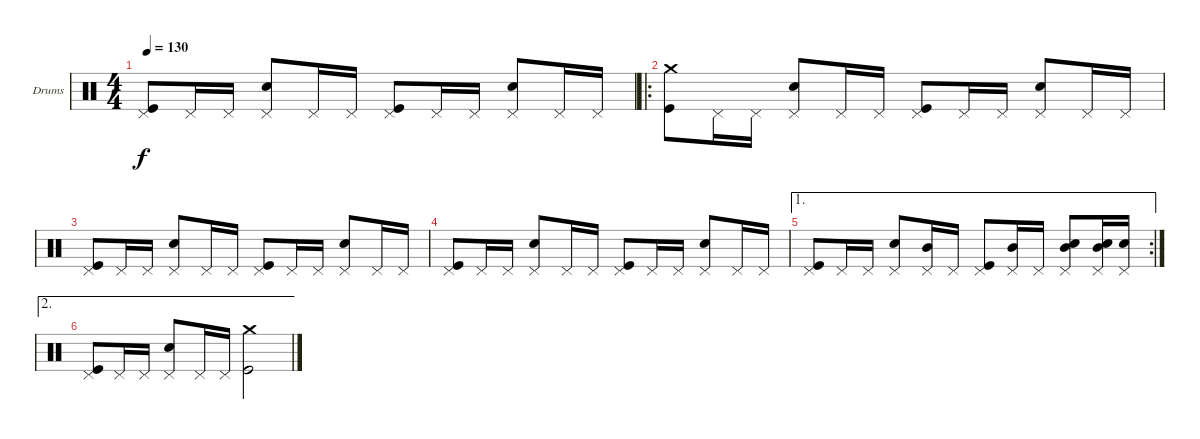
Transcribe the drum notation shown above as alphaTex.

\bracketExtendMode groupsimilarinstruments
\firstSystemTrackNameOrientation horizontal
\otherSystemsTrackNameOrientation horizontal
\track ("Drumkit" "Drums") {instrument percussion}
\staff {score}
\articulation defaults
\ts (4 4)
\tempo 130
\clef neutral
\ks c
("Pedal Hi-Hat (hit)" "Kick (hit)").8{dy f} "Pedal Hi-Hat (hit)".16 "Pedal Hi-Hat (hit)".16 ("Pedal Hi-Hat (hit)" "Snare (hit) 2").8 "Pedal Hi-Hat (hit)".16 "Pedal Hi-Hat (hit)".16 ("Pedal Hi-Hat (hit)" "Kick (hit)").8 "Pedal Hi-Hat (hit)".16 "Pedal Hi-Hat (hit)".16 ("Pedal Hi-Hat (hit)" "Snare (hit) 2").8 "Pedal Hi-Hat (hit)".16 "Pedal Hi-Hat (hit)".16 |
\ro
("Crash medium (hit)" "Kick (hit)").8 "Pedal Hi-Hat (hit)".16 "Pedal Hi-Hat (hit)".16 ("Pedal Hi-Hat (hit)" "Snare (hit) 2").8 "Pedal Hi-Hat (hit)".16 "Pedal Hi-Hat (hit)".16 ("Pedal Hi-Hat (hit)" "Kick (hit)").8 "Pedal Hi-Hat (hit)".16 "Pedal Hi-Hat (hit)".16 ("Pedal Hi-Hat (hit)" "Snare (hit) 2").8 "Pedal Hi-Hat (hit)".16 "Pedal Hi-Hat (hit)".16 |
("Pedal Hi-Hat (hit)" "Kick (hit)").8 "Pedal Hi-Hat (hit)".16 "Pedal Hi-Hat (hit)".16 ("Pedal Hi-Hat (hit)" "Snare (hit) 2").8 "Pedal Hi-Hat (hit)".16 "Pedal Hi-Hat (hit)".16 ("Pedal Hi-Hat (hit)" "Kick (hit)").8 "Pedal Hi-Hat (hit)".16 "Pedal Hi-Hat (hit)".16 ("Pedal Hi-Hat (hit)" "Snare (hit) 2").8 "Pedal Hi-Hat (hit)".16 "Pedal Hi-Hat (hit)".16 |
("Pedal Hi-Hat (hit)" "Kick (hit)").8 "Pedal Hi-Hat (hit)".16 "Pedal Hi-Hat (hit)".16 ("Pedal Hi-Hat (hit)" "Snare (hit) 2").8 "Pedal Hi-Hat (hit)".16 "Pedal Hi-Hat (hit)".16 ("Pedal Hi-Hat (hit)" "Kick (hit)").8 "Pedal Hi-Hat (hit)".16 "Pedal Hi-Hat (hit)".16 ("Pedal Hi-Hat (hit)" "Snare (hit) 2").8 "Pedal Hi-Hat (hit)".16 "Pedal Hi-Hat (hit)".16 |
\ae 1
\rc 2
("Pedal Hi-Hat (hit)" "Kick (hit)").8 "Pedal Hi-Hat (hit)".16 "Pedal Hi-Hat (hit)".16 ("Pedal Hi-Hat (hit)" "Snare (hit) 2").8 ("Pedal Hi-Hat (hit)" "Mid Tom (hit)").16 "Pedal Hi-Hat (hit)".16 ("Pedal Hi-Hat (hit)" "Kick (hit)").8 ("Pedal Hi-Hat (hit)" "Mid Tom (hit)").16 "Pedal Hi-Hat (hit)".16 ("Pedal Hi-Hat (hit)" "Snare (hit) 2" "Mid Tom (hit)").8 ("Pedal Hi-Hat (hit)" "Snare (hit) 2" "Mid Tom (hit)").16 ("Pedal Hi-Hat (hit)" "Snare (hit) 2").16 |
\ae 2
("Pedal Hi-Hat (hit)" "Kick (hit)").8 "Pedal Hi-Hat (hit)".16 "Pedal Hi-Hat (hit)".16 ("Pedal Hi-Hat (hit)" "Snare (hit) 2").8 "Pedal Hi-Hat (hit)".16 "Pedal Hi-Hat (hit)".16 ("Crash medium (hit)" "Kick (hit)").2
